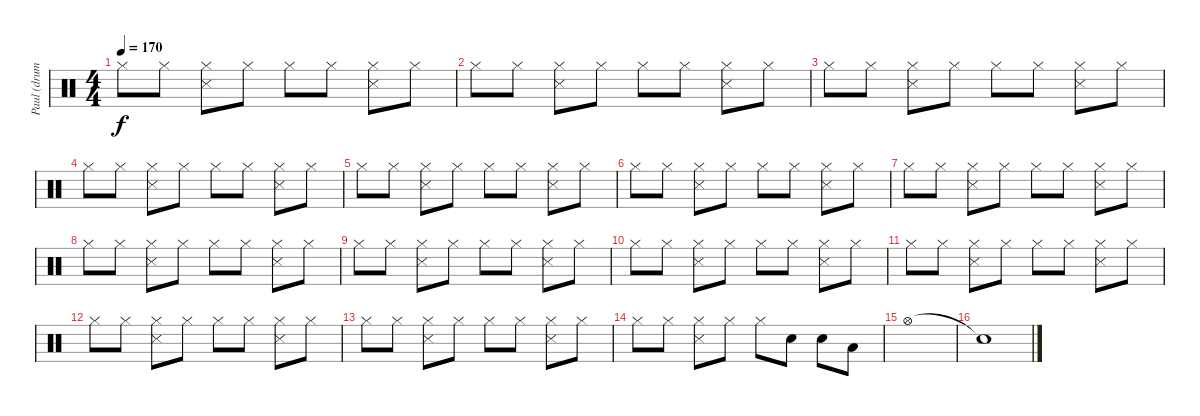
\track ("Paul (drums)" "Paul (drum") {instrument percussion}
\staff {score}
\articulation defaults
\ts (4 4)
\tempo 170
\clef neutral
\ks c "Hi-Hat (closed)".8{dy f} "Hi-Hat (closed)".8
("Snare (side stick) 3" "Hi-Hat (closed)").8 "Hi-Hat (closed)".8 "Hi-Hat (closed)".8 "Hi-Hat (closed)".8 ("Snare (side stick) 3" "Hi-Hat (closed)").8 "Hi-Hat (closed)".8 |
"Hi-Hat (closed)".8 "Hi-Hat (closed)".8 ("Snare (side stick) 3" "Hi-Hat (closed)").8 "Hi-Hat (closed)".8 "Hi-Hat (closed)".8 "Hi-Hat (closed)".8 ("Snare (side stick) 3" "Hi-Hat (closed)").8 "Hi-Hat (closed)".8 |
"Hi-Hat (closed)".8 "Hi-Hat (closed)".8 ("Snare (side stick) 3" "Hi-Hat (closed)").8 "Hi-Hat (closed)".8 "Hi-Hat (closed)".8 "Hi-Hat (closed)".8 ("Snare (side stick) 3" "Hi-Hat (closed)").8 "Hi-Hat (closed)".8 |
"Hi-Hat (closed)".8 "Hi-Hat (closed)".8 ("Snare (side stick) 3" "Hi-Hat (closed)").8 "Hi-Hat (closed)".8 "Hi-Hat (closed)".8 "Hi-Hat (closed)".8 ("Snare (side stick) 3" "Hi-Hat (closed)").8 "Hi-Hat (closed)".8 |
"Hi-Hat (closed)".8 "Hi-Hat (closed)".8 ("Snare (side stick) 3" "Hi-Hat (closed)").8 "Hi-Hat (closed)".8 "Hi-Hat (closed)".8 "Hi-Hat (closed)".8 ("Snare (side stick) 3" "Hi-Hat (closed)").8 "Hi-Hat (closed)".8 |
"Hi-Hat (closed)".8 "Hi-Hat (closed)".8 ("Snare (side stick) 3" "Hi-Hat (closed)").8 "Hi-Hat (closed)".8 "Hi-Hat (closed)".8 "Hi-Hat (closed)".8 ("Snare (side stick) 3" "Hi-Hat (closed)").8 "Hi-Hat (closed)".8 |
"Hi-Hat (closed)".8 "Hi-Hat (closed)".8 ("Snare (side stick) 3" "Hi-Hat (closed)").8 "Hi-Hat (closed)".8 "Hi-Hat (closed)".8 "Hi-Hat (closed)".8 ("Snare (side stick) 3" "Hi-Hat (closed)").8 "Hi-Hat (closed)".8 |
"Hi-Hat (closed)".8 "Hi-Hat (closed)".8 ("Snare (side stick) 3" "Hi-Hat (closed)").8 "Hi-Hat (closed)".8 "Hi-Hat (closed)".8 "Hi-Hat (closed)".8 ("Snare (side stick) 3" "Hi-Hat (closed)").8 "Hi-Hat (closed)".8 |
"Hi-Hat (closed)".8 "Hi-Hat (closed)".8 ("Snare (side stick) 3" "Hi-Hat (closed)").8 "Hi-Hat (closed)".8 "Hi-Hat (closed)".8 "Hi-Hat (closed)".8 ("Snare (side stick) 3" "Hi-Hat (closed)").8 "Hi-Hat (closed)".8 |
"Hi-Hat (closed)".8 "Hi-Hat (closed)".8 ("Snare (side stick) 3" "Hi-Hat (closed)").8 "Hi-Hat (closed)".8 "Hi-Hat (closed)".8 "Hi-Hat (closed)".8 ("Snare (side stick) 3" "Hi-Hat (closed)").8 "Hi-Hat (closed)".8 |
"Hi-Hat (closed)".8 "Hi-Hat (closed)".8 ("Snare (side stick) 3" "Hi-Hat (closed)").8 "Hi-Hat (closed)".8 "Hi-Hat (closed)".8 "Hi-Hat (closed)".8 ("Snare (side stick) 3" "Hi-Hat (closed)").8 "Hi-Hat (closed)".8 |
"Hi-Hat (closed)".8 "Hi-Hat (closed)".8 ("Snare (side stick) 3" "Hi-Hat (closed)").8 "Hi-Hat (closed)".8 "Hi-Hat (closed)".8 "Hi-Hat (closed)".8 ("Snare (side stick) 3" "Hi-Hat (closed)").8 "Hi-Hat (closed)".8 |
"Hi-Hat (closed)".8 "Hi-Hat (closed)".8 ("Snare (side stick) 3" "Hi-Hat (closed)").8 "Hi-Hat (closed)".8 "Hi-Hat (closed)".8 "Hi-Hat (closed)".8 ("Snare (side stick) 3" "Hi-Hat (closed)").8 "Hi-Hat (closed)".8 |
"Hi-Hat (closed)".8 "Hi-Hat (closed)".8 ("Snare (side stick) 3" "Hi-Hat (closed)").8 "Hi-Hat (closed)".8 "Hi-Hat (closed)".8 "Snare (hit) 2".8 "Snare (hit) 2".8 "Low Floor Tom (hit)".8 |
"Hi-Hat (open)".1 |
"Snare (hit)"{t}.1
